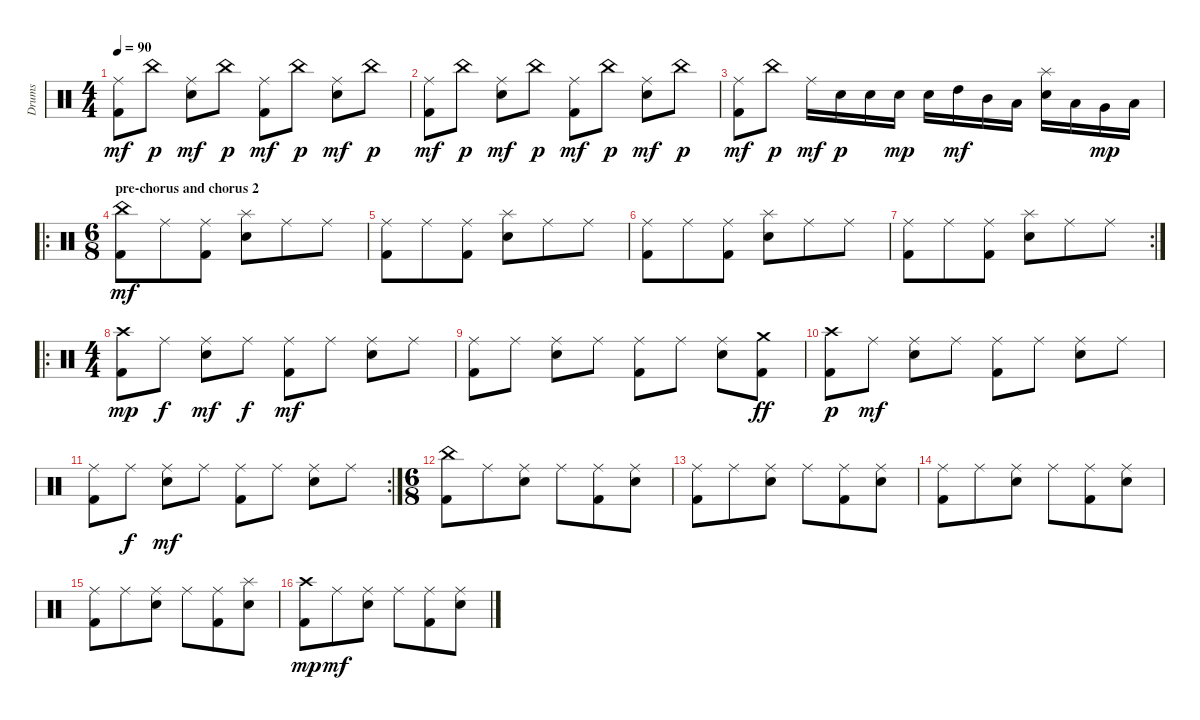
\track ("Drums" "Drums") {instrument percussion}
\staff {score}
\articulation defaults
\ts (4 4)
\tempo 90
\clef neutral
\ks c
("Ride (middle)" "Kick (hit) 2").8{dy mf} "China (hit)".8{dy p} ("Ride (middle)" "Electric Snare (hit)").8{dy mf} "China (hit)".8{dy p} ("Ride (middle)" "Kick (hit) 2").8{dy mf} "China (hit)".8{dy p} ("Ride (middle)" "Electric Snare (hit)").8{dy mf} "China (hit)".8{dy p} |
("Ride (middle)" "Kick (hit) 2").8{dy mf} "China (hit)".8{dy p} ("Ride (middle)" "Electric Snare (hit)").8{dy mf} "China (hit)".8{dy p} ("Ride (middle)" "Kick (hit) 2").8{dy mf} "China (hit)".8{dy p} ("Ride (middle)" "Electric Snare (hit)").8{dy mf} "China (hit)".8{dy p} |
("Ride (middle)" "Kick (hit) 2").8{dy mf} "China (hit)".8{dy p} "Ride (middle)".16{dy mf} "Electric Snare (hit)".16{dy p} "Electric Snare (hit)".16 "Electric Snare (hit)".16{dy mp} "Electric Snare (hit)".16 "High Tom (hit)".16{dy mf} "Mid Tom (hit)".16 "Low Tom (hit)".16 ("Splash (hit)" "Electric Snare (hit)").16 "Low Tom (hit)".16 "Very Low Tom (hit)".16{dy mp} "Low Floor Tom (hit)".16 |
\ro
\ts (6 8)
\section ("" "pre-chorus and chorus 2")
("China (hit)" "Kick (hit) 2").8{dy mf} "Ride (middle)".8 ("Ride (middle)" "Kick (hit) 2").8 ("Splash (hit)" "Electric Snare (hit)").8 "Ride (middle)".8 "Ride (middle)".8 |
("Ride (middle)" "Kick (hit) 2").8 "Ride (middle)".8 ("Ride (middle)" "Kick (hit) 2").8 ("Splash (hit)" "Electric Snare (hit)").8 "Ride (middle)".8 "Ride (middle)".8 |
("Ride (middle)" "Kick (hit) 2").8 "Ride (middle)".8 ("Ride (middle)" "Kick (hit) 2").8 ("Splash (hit)" "Electric Snare (hit)").8 "Ride (middle)".8 "Ride (middle)".8 |
\rc 2
("Ride (middle)" "Kick (hit) 2").8 "Ride (middle)".8 ("Ride (middle)" "Kick (hit) 2").8 ("Splash (hit)" "Electric Snare (hit)").8 "Ride (middle)".8 "Ride (middle)".8 |
\ro
\ts (4 4)
("Crash high (hit)" "Kick (hit) 2").8{dy mp} "Ride (middle)".8{dy f} ("Ride (middle)" "Electric Snare (hit)").8{dy mf} "Ride (middle)".8{dy f} ("Ride (middle)" "Kick (hit) 2").8{dy mf} "Ride (middle)".8 ("Ride (middle)" "Electric Snare (hit)").8 "Ride (middle)".8 |
("Ride (middle)" "Kick (hit) 2").8 "Ride (middle)".8 ("Ride (middle)" "Electric Snare (hit)").8 "Ride (middle)".8 ("Ride (middle)" "Kick (hit) 2").8 "Ride (middle)".8 ("Ride (middle)" "Electric Snare (hit)").8 ("Crash medium (hit)" "Kick (hit) 2").8{dy ff} |
("Crash high (hit)" "Kick (hit) 2").8{dy p} "Ride (middle)".8{dy mf} ("Ride (middle)" "Electric Snare (hit)").8 "Ride (middle)".8 ("Ride (middle)" "Kick (hit) 2").8 "Ride (middle)".8 ("Ride (middle)" "Electric Snare (hit)").8 "Ride (middle)".8 |
\rc 2
("Ride (middle)" "Kick (hit) 2").8 "Ride (middle)".8{dy f} ("Ride (middle)" "Electric Snare (hit)").8{dy mf} "Ride (middle)".8 ("Ride (middle)" "Kick (hit) 2").8 "Ride (middle)".8 ("Ride (middle)" "Electric Snare (hit)").8 "Ride (middle)".8 |
\ts (6 8)
("China (hit)" "Kick (hit) 2").8 "Ride (middle)".8 ("Ride (middle)" "Electric Snare (hit)").8 "Ride (middle)".8 ("Ride (middle)" "Kick (hit) 2").8 ("Ride (middle)" "Electric Snare (hit)").8 |
("Ride (middle)" "Kick (hit) 2").8 "Ride (middle)".8 ("Ride (middle)" "Electric Snare (hit)").8 "Ride (middle)".8 ("Ride (middle)" "Kick (hit) 2").8 ("Ride (middle)" "Electric Snare (hit)").8 |
("Ride (middle)" "Kick (hit) 2").8 "Ride (middle)".8 ("Ride (middle)" "Electric Snare (hit)").8 "Ride (middle)".8 ("Ride (middle)" "Kick (hit) 2").8 ("Ride (middle)" "Electric Snare (hit)").8 |
("Ride (middle)" "Kick (hit) 2").8 "Ride (middle)".8 ("Ride (middle)" "Electric Snare (hit)").8 "Ride (middle)".8 ("Ride (middle)" "Kick (hit) 2").8 ("Splash (hit)" "Electric Snare (hit)").8 |
("Crash high (hit)" "Kick (hit) 2").8{dy mp} "Ride (middle)".8{dy mf} ("Ride (middle)" "Electric Snare (hit)").8 "Ride (middle)".8 ("Ride (middle)" "Kick (hit) 2").8 ("Ride (middle)" "Electric Snare (hit)").8
